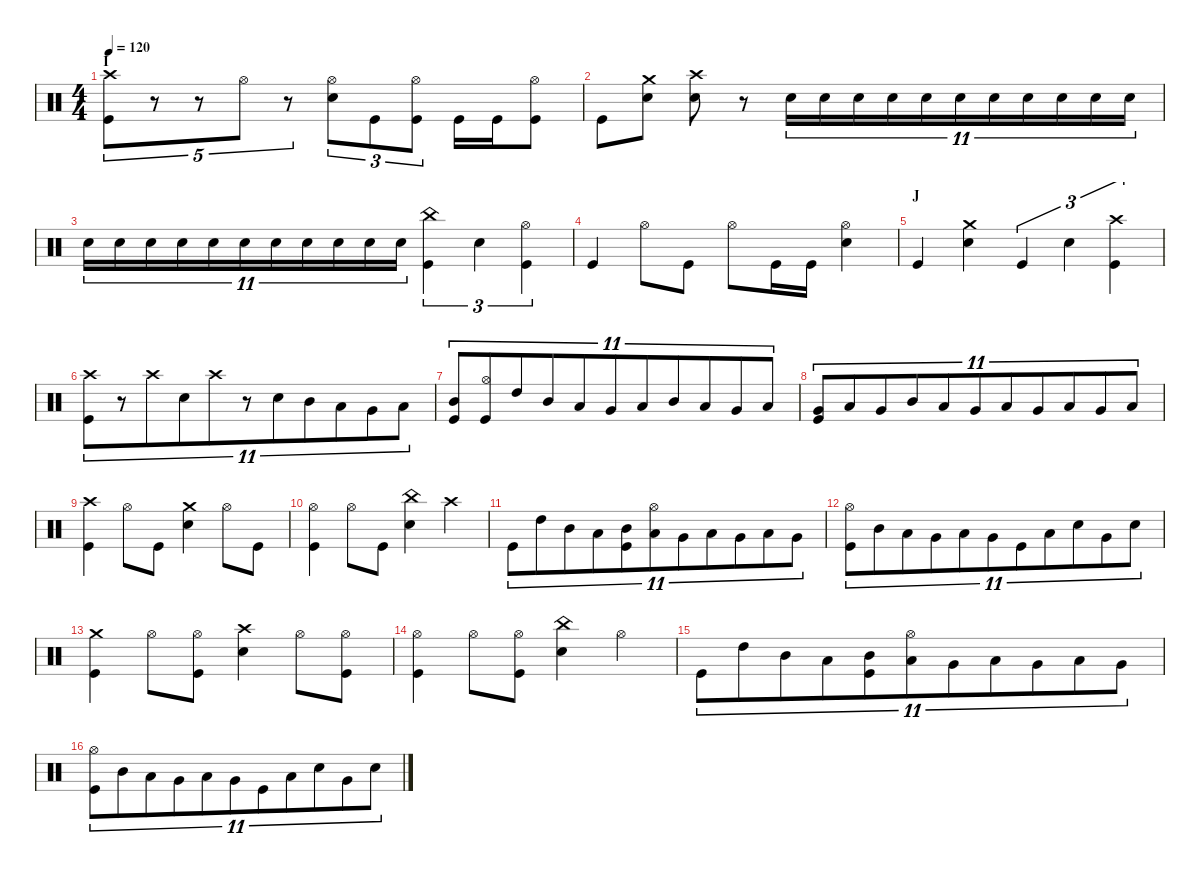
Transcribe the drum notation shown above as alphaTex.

\defaultSystemsLayout 4
\hideDynamics
\bracketExtendMode nobrackets
\singleTrackTrackNamePolicy hidden
\multiTrackTrackNamePolicy hidden
\otherSystemsTrackNameOrientation horizontal
\track ("Drums (Terry Bozzio)" "drm.") {instrument percussion}
\staff {score}
\articulation defaults
\ts (4 4)
\section ("" "I")
\tempo 120
\clef neutral
\ks c
("Crash high (hit)" "Kick (hit)").8{tu (5 4) dy fff beam Down} r.8{tu (5 4) beam Down} r.8{tu (5 4) beam Down} "Hi-Hat (open)".8{tu (5 4) beam Down} r.8{tu (5 4) beam Down} ("Hi-Hat (open)" "Snare (hit) 2").8{tu (3 2) beam Down} "Kick (hit)".8{tu (3 2) beam Down} ("Hi-Hat (open)" "Kick (hit)").8{tu (3 2) beam Down} "Kick (hit)".16{beam Down} "Kick (hit)".16{beam Down} ("Hi-Hat (open)" "Kick (hit)").8{beam Down} |
"Kick (hit)".8{beam Down} ("Crash medium (hit)" "Snare (hit) 2").8{beam Down} ("Crash high (hit)" "Snare (hit) 2").8{beam Down} r.8{beam Down} "Snare (hit) 2".16{tu (11 8) beam Down} "Snare (hit) 2".16{tu (11 8) beam Down} "Snare (hit) 2".16{tu (11 8) beam Down} "Snare (hit) 2".16{tu (11 8) beam Down} "Snare (hit) 2".16{tu (11 8) beam Down} "Snare (hit) 2".16{tu (11 8) beam Down} "Snare (hit) 2".16{tu (11 8) beam Down} "Snare (hit) 2".16{tu (11 8) beam Down} "Snare (hit) 2".16{tu (11 8) beam Down} "Snare (hit) 2".16{tu (11 8) beam Down} "Snare (hit) 2".16{tu (11 8) beam Down} |
"Snare (hit) 2".16{tu (11 8) beam Down} "Snare (hit) 2".16{tu (11 8) beam Down} "Snare (hit) 2".16{tu (11 8) beam Down} "Snare (hit) 2".16{tu (11 8) beam Down} "Snare (hit) 2".16{tu (11 8) beam Down} "Snare (hit) 2".16{tu (11 8) beam Down} "Snare (hit) 2".16{tu (11 8) beam Down} "Snare (hit) 2".16{tu (11 8) beam Down} "Snare (hit) 2".16{tu (11 8) beam Down} "Snare (hit) 2".16{tu (11 8) beam Down} "Snare (hit) 2".16{tu (11 8) beam Down} ("China (hit)" "Kick (hit)").4{tu (3 2) beam Down} "Snare (hit) 2".4{tu (3 2) beam Down} ("Hi-Hat (open)" "Kick (hit)").4{tu (3 2) beam Down} |
"Kick (hit)".4{beam Up} "Hi-Hat (open)".8{beam Down} "Kick (hit)".8{beam Down} "Hi-Hat (open)".8{beam Down} "Kick (hit)".16{beam Down} "Kick (hit)".16{beam Down} ("Hi-Hat (open)" "Snare (hit) 2").4{beam Down} |
\section ("" "J")
"Kick (hit)".4{beam Up} ("Crash medium (hit)" "Snare (hit) 2").4{beam Down} "Kick (hit)".4{tu (3 2) beam Up} "Snare (hit) 2".4{tu (3 2) beam Down} ("Crash high (hit)" "Kick (hit)").4{tu (3 2) beam Down} |
("Crash high (hit)" "Kick (hit)").8{tu (11 8) beam Down} r.8{tu (11 8) beam Down} "Crash high (hit)".8{tu (11 8) beam Down} "Snare (hit) 2".8{tu (11 8) beam Down} "Crash high (hit)".8{tu (11 8) beam Down} r.8{tu (11 8) beam Down} "Snare (hit) 2".8{tu (11 8) beam Down} "Mid Tom (hit)".8{tu (11 8) beam Down} "Low Tom (hit)".8{tu (11 8) beam Down} "Very Low Tom (hit)".8{tu (11 8) beam Down} "Low Tom (hit)".8{tu (11 8) beam Down} |
("Mid Tom (hit)" "Kick (hit)").8{tu (11 8) beam Up} ("Hi-Hat (open)" "Kick (hit)").8{tu (11 8) beam Up} "High Tom (hit)".8{tu (11 8) beam Up} "Mid Tom (hit)".8{tu (11 8) beam Up} "Low Tom (hit)".8{tu (11 8) beam Up} "Very Low Tom (hit)".8{tu (11 8) beam Up} "Low Tom (hit)".8{tu (11 8) beam Up} "Mid Tom (hit)".8{tu (11 8) beam Up} "Low Tom (hit)".8{tu (11 8) beam Up} "Very Low Tom (hit)".8{tu (11 8) beam Up} "Low Floor Tom (hit)".8{tu (11 8) beam Up} |
("Very Low Tom (hit)" "Kick (hit)").8{tu (11 8) beam Up} "Low Tom (hit)".8{tu (11 8) beam Up} "Very Low Tom (hit)".8{tu (11 8) beam Up} "Mid Tom (hit)".8{tu (11 8) beam Up} "Low Tom (hit)".8{tu (11 8) beam Up} "Very Low Tom (hit)".8{tu (11 8) beam Up} "Low Floor Tom (hit)".8{tu (11 8) beam Up} "Very Low Tom (hit)".8{tu (11 8) beam Up} "Low Tom (hit)".8{tu (11 8) beam Up} "Very Low Tom (hit)".8{tu (11 8) beam Up} "Low Floor Tom (hit)".8{tu (11 8) beam Up} |
("Crash high (hit)" "Kick (hit)").4{beam Down} "Hi-Hat (open)".8{beam Down} "Kick (hit)".8{beam Down} ("Crash medium (hit)" "Snare (hit) 2").4{beam Down} "Hi-Hat (open)".8{beam Down} "Kick (hit)".8{beam Down} |
("Hi-Hat (open)" "Kick (hit)").4{beam Down} "Hi-Hat (open)".8{beam Down} "Kick (hit)".8{beam Down} ("China (hit)" "Snare (hit) 2").4{beam Down} "Crash high (hit)".4{beam Down} |
"Kick (hit)".8{tu (11 8) beam Down} "High Tom (hit)".8{tu (11 8) beam Down} "Mid Tom (hit)".8{tu (11 8) beam Down} "Low Tom (hit)".8{tu (11 8) beam Down} ("Mid Tom (hit)" "Kick (hit)").8{tu (11 8) beam Down} ("Hi-Hat (open)" "Low Tom (hit)").8{tu (11 8) beam Down} "Very Low Tom (hit)".8{tu (11 8) beam Down} "Low Floor Tom (hit)".8{tu (11 8) beam Down} "Very Low Tom (hit)".8{tu (11 8) beam Down} "Low Tom (hit)".8{tu (11 8) beam Down} "Very Low Tom (hit)".8{tu (11 8) beam Down} |
("Hi-Hat (open)" "Kick (hit)").8{tu (11 8) beam Down} "Mid Tom (hit)".8{tu (11 8) beam Down} "Low Tom (hit)".8{tu (11 8) beam Down} "Very Low Tom (hit)".8{tu (11 8) beam Down} "Low Floor Tom (hit)".8{tu (11 8) beam Down} "Very Low Tom (hit)".8{tu (11 8) beam Down} "Kick (hit)".8{tu (11 8) beam Down} "Low Floor Tom (hit)".8{tu (11 8) beam Down} "Snare (hit) 2".8{tu (11 8) beam Down} "Very Low Tom (hit)".8{tu (11 8) beam Down} "Snare (hit) 2".8{tu (11 8) beam Down} |
("Crash medium (hit)" "Kick (hit)").4{beam Down} "Hi-Hat (open)".8{beam Down} ("Hi-Hat (open)" "Kick (hit)").8{beam Down} ("Crash high (hit)" "Snare (hit) 2").4{beam Down} "Hi-Hat (open)".8{beam Down} ("Hi-Hat (open)" "Kick (hit)").8{beam Down} |
("Hi-Hat (open)" "Kick (hit)").4{beam Down} "Hi-Hat (open)".8{beam Down} ("Hi-Hat (open)" "Kick (hit)").8{beam Down} ("China (hit)" "Snare (hit) 2").4{beam Down} "Hi-Hat (open)".4{beam Down} |
"Kick (hit)".8{tu (11 8) beam Down} "High Tom (hit)".8{tu (11 8) beam Down} "Mid Tom (hit)".8{tu (11 8) beam Down} "Low Tom (hit)".8{tu (11 8) beam Down} ("Mid Tom (hit)" "Kick (hit)").8{tu (11 8) beam Down} ("Hi-Hat (open)" "Low Tom (hit)").8{tu (11 8) beam Down} "Very Low Tom (hit)".8{tu (11 8) beam Down} "Low Floor Tom (hit)".8{tu (11 8) beam Down} "Very Low Tom (hit)".8{tu (11 8) beam Down} "Low Tom (hit)".8{tu (11 8) beam Down} "Very Low Tom (hit)".8{tu (11 8) beam Down} |
("Hi-Hat (open)" "Kick (hit)").8{tu (11 8) beam Down} "Mid Tom (hit)".8{tu (11 8) beam Down} "Low Tom (hit)".8{tu (11 8) beam Down} "Very Low Tom (hit)".8{tu (11 8) beam Down} "Low Floor Tom (hit)".8{tu (11 8) beam Down} "Very Low Tom (hit)".8{tu (11 8) beam Down} "Kick (hit)".8{tu (11 8) beam Down} "Low Floor Tom (hit)".8{tu (11 8) beam Down} "Snare (hit) 2".8{tu (11 8) beam Down} "Very Low Tom (hit)".8{tu (11 8) beam Down} "Snare (hit) 2".8{tu (11 8) beam Down}
